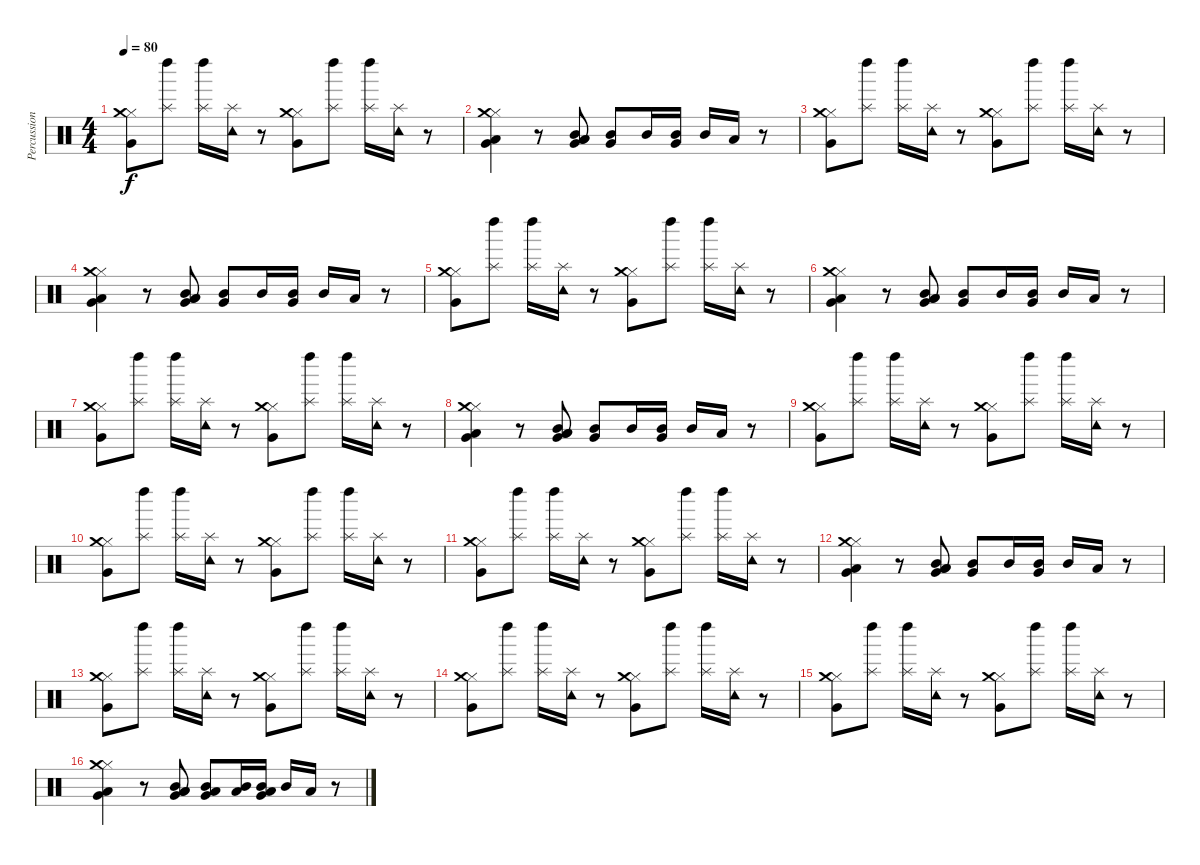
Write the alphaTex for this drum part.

\track ("Percussion" "Percussion") {instrument percussion}
\staff {score}
\articulation defaults
\ts (4 4)
\tempo 80
\clef neutral
\ks c
("Hi-Hat (closed)" "Very Low Tom (hit)" "Crash medium (hit)").8{dy f} ("Left Maraca (hit)" "Splash (hit)").8 ("Left Maraca (hit)" "Splash (hit)").16 ("Tambourine (hit)" "Splash (hit)").16 r.8 ("Hi-Hat (closed)" "Very Low Tom (hit)" "Crash medium (hit)").8 ("Left Maraca (hit)" "Splash (hit)").8 ("Left Maraca (hit)" "Splash (hit)").16 ("Tambourine (hit)" "Splash (hit)").16 r.8 |
("Hi-Hat (closed)" "Very Low Tom (hit)" "Crash medium (hit)" "Low Tom (hit)").4 r.8 ("Low Floor Tom (hit)" "Mid Tom (hit)" "Very Low Tom (hit)" "Low Tom (hit)").8 ("Very Low Tom (hit)" "Mid Tom (hit)").8 "Mid Tom (hit)".16 ("Very Low Tom (hit)" "Mid Tom (hit)").16 "Mid Tom (hit)".16 "Low Tom (hit)".16 r.8 |
("Hi-Hat (closed)" "Very Low Tom (hit)" "Crash medium (hit)").8 ("Left Maraca (hit)" "Splash (hit)").8 ("Left Maraca (hit)" "Splash (hit)").16 ("Tambourine (hit)" "Splash (hit)").16 r.8 ("Hi-Hat (closed)" "Very Low Tom (hit)" "Crash medium (hit)").8 ("Left Maraca (hit)" "Splash (hit)").8 ("Left Maraca (hit)" "Splash (hit)").16 ("Tambourine (hit)" "Splash (hit)").16 r.8 |
("Hi-Hat (closed)" "Very Low Tom (hit)" "Crash medium (hit)" "Low Tom (hit)").4 r.8 ("Low Floor Tom (hit)" "Mid Tom (hit)" "Very Low Tom (hit)" "Low Tom (hit)").8 ("Very Low Tom (hit)" "Mid Tom (hit)").8 "Mid Tom (hit)".16 ("Very Low Tom (hit)" "Mid Tom (hit)").16 "Mid Tom (hit)".16 "Low Tom (hit)".16 r.8 |
("Hi-Hat (closed)" "Very Low Tom (hit)" "Crash medium (hit)").8 ("Left Maraca (hit)" "Splash (hit)").8 ("Left Maraca (hit)" "Splash (hit)").16 ("Tambourine (hit)" "Splash (hit)").16 r.8 ("Hi-Hat (closed)" "Very Low Tom (hit)" "Crash medium (hit)").8 ("Left Maraca (hit)" "Splash (hit)").8 ("Left Maraca (hit)" "Splash (hit)").16 ("Tambourine (hit)" "Splash (hit)").16 r.8 |
("Hi-Hat (closed)" "Very Low Tom (hit)" "Crash medium (hit)" "Low Tom (hit)").4 r.8 ("Low Floor Tom (hit)" "Mid Tom (hit)" "Very Low Tom (hit)" "Low Tom (hit)").8 ("Very Low Tom (hit)" "Mid Tom (hit)").8 "Mid Tom (hit)".16 ("Very Low Tom (hit)" "Mid Tom (hit)").16 "Mid Tom (hit)".16 "Low Tom (hit)".16 r.8 |
("Hi-Hat (closed)" "Very Low Tom (hit)" "Crash medium (hit)").8 ("Left Maraca (hit)" "Splash (hit)").8 ("Left Maraca (hit)" "Splash (hit)").16 ("Tambourine (hit)" "Splash (hit)").16 r.8 ("Hi-Hat (closed)" "Very Low Tom (hit)" "Crash medium (hit)").8 ("Left Maraca (hit)" "Splash (hit)").8 ("Left Maraca (hit)" "Splash (hit)").16 ("Tambourine (hit)" "Splash (hit)").16 r.8 |
("Hi-Hat (closed)" "Very Low Tom (hit)" "Crash medium (hit)" "Low Tom (hit)").4 r.8 ("Low Floor Tom (hit)" "Mid Tom (hit)" "Very Low Tom (hit)" "Low Tom (hit)").8 ("Very Low Tom (hit)" "Mid Tom (hit)").8 "Mid Tom (hit)".16 ("Very Low Tom (hit)" "Mid Tom (hit)").16 "Mid Tom (hit)".16 "Low Tom (hit)".16 r.8 |
("Hi-Hat (closed)" "Very Low Tom (hit)" "Crash medium (hit)").8 ("Left Maraca (hit)" "Splash (hit)").8 ("Left Maraca (hit)" "Splash (hit)").16 ("Tambourine (hit)" "Splash (hit)").16 r.8 ("Hi-Hat (closed)" "Very Low Tom (hit)" "Crash medium (hit)").8 ("Left Maraca (hit)" "Splash (hit)").8 ("Left Maraca (hit)" "Splash (hit)").16 ("Tambourine (hit)" "Splash (hit)").16 r.8 |
("Hi-Hat (closed)" "Very Low Tom (hit)" "Crash medium (hit)").8 ("Left Maraca (hit)" "Splash (hit)").8 ("Left Maraca (hit)" "Splash (hit)").16 ("Tambourine (hit)" "Splash (hit)").16 r.8 ("Hi-Hat (closed)" "Very Low Tom (hit)" "Crash medium (hit)").8 ("Left Maraca (hit)" "Splash (hit)").8 ("Left Maraca (hit)" "Splash (hit)").16 ("Tambourine (hit)" "Splash (hit)").16 r.8 |
("Hi-Hat (closed)" "Very Low Tom (hit)" "Crash medium (hit)").8 ("Left Maraca (hit)" "Splash (hit)").8 ("Left Maraca (hit)" "Splash (hit)").16 ("Tambourine (hit)" "Splash (hit)").16 r.8 ("Hi-Hat (closed)" "Very Low Tom (hit)" "Crash medium (hit)").8 ("Left Maraca (hit)" "Splash (hit)").8 ("Left Maraca (hit)" "Splash (hit)").16 ("Tambourine (hit)" "Splash (hit)").16 r.8 |
("Hi-Hat (closed)" "Very Low Tom (hit)" "Crash medium (hit)" "Low Tom (hit)").4 r.8 ("Low Floor Tom (hit)" "Mid Tom (hit)" "Very Low Tom (hit)" "Low Tom (hit)").8 ("Very Low Tom (hit)" "Mid Tom (hit)").8 "Mid Tom (hit)".16 ("Very Low Tom (hit)" "Mid Tom (hit)").16 "Mid Tom (hit)".16 "Low Tom (hit)".16 r.8 |
("Hi-Hat (closed)" "Very Low Tom (hit)" "Crash medium (hit)").8 ("Left Maraca (hit)" "Splash (hit)").8 ("Left Maraca (hit)" "Splash (hit)").16 ("Tambourine (hit)" "Splash (hit)").16 r.8 ("Hi-Hat (closed)" "Very Low Tom (hit)" "Crash medium (hit)").8 ("Left Maraca (hit)" "Splash (hit)").8 ("Left Maraca (hit)" "Splash (hit)").16 ("Tambourine (hit)" "Splash (hit)").16 r.8 |
("Hi-Hat (closed)" "Very Low Tom (hit)" "Crash medium (hit)").8 ("Left Maraca (hit)" "Splash (hit)").8 ("Left Maraca (hit)" "Splash (hit)").16 ("Tambourine (hit)" "Splash (hit)").16 r.8 ("Hi-Hat (closed)" "Very Low Tom (hit)" "Crash medium (hit)").8 ("Left Maraca (hit)" "Splash (hit)").8 ("Left Maraca (hit)" "Splash (hit)").16 ("Tambourine (hit)" "Splash (hit)").16 r.8 |
("Hi-Hat (closed)" "Very Low Tom (hit)" "Crash medium (hit)").8 ("Left Maraca (hit)" "Splash (hit)").8 ("Left Maraca (hit)" "Splash (hit)").16 ("Tambourine (hit)" "Splash (hit)").16 r.8 ("Hi-Hat (closed)" "Very Low Tom (hit)" "Crash medium (hit)").8 ("Left Maraca (hit)" "Splash (hit)").8 ("Left Maraca (hit)" "Splash (hit)").16 ("Tambourine (hit)" "Splash (hit)").16 r.8 |
("Hi-Hat (closed)" "Very Low Tom (hit)" "Crash medium (hit)" "Low Tom (hit)").4 r.8 ("Low Floor Tom (hit)" "Mid Tom (hit)" "Very Low Tom (hit)" "Low Tom (hit)").8 ("Very Low Tom (hit)" "Mid Tom (hit)" "Low Tom (hit)").8 ("Mid Tom (hit)" "Low Tom (hit)").16 ("Very Low Tom (hit)" "Mid Tom (hit)" "Low Tom (hit)").16 "Mid Tom (hit)".16 "Low Tom (hit)".16 r.8
